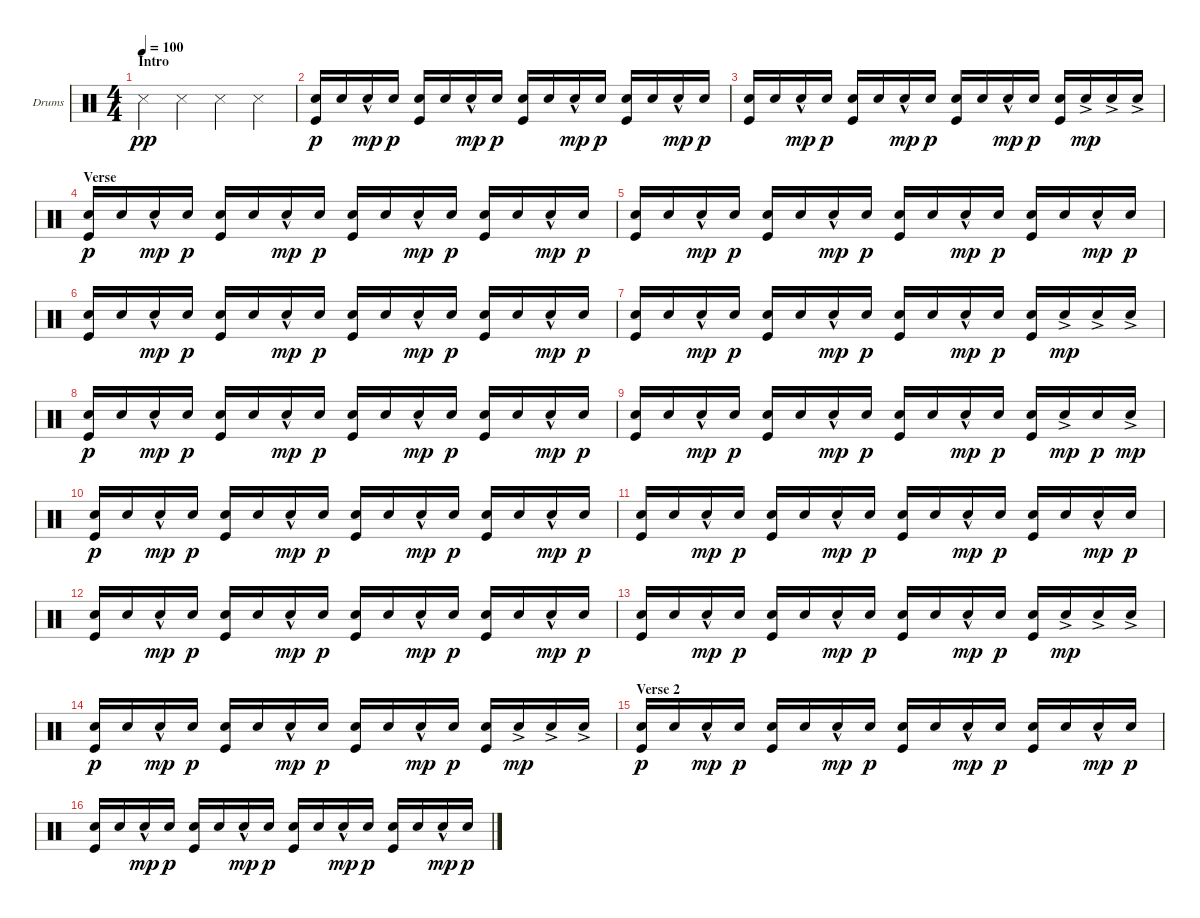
\defaultSystemsLayout 4
\bracketExtendMode groupsimilarinstruments
\firstSystemTrackNameOrientation horizontal
\otherSystemsTrackNameOrientation horizontal
\track ("Drumkit" "Drums") {instrument percussion}
\staff {score}
\articulation defaults
\ts (4 4)
\section ("" "Intro")
\tempo 100
\clef neutral
\ks c "Snare (side stick) 3".4{dy pp} "Snare (side stick) 3".4 "Snare (side stick) 3".4 "Snare (side stick) 3".4
|
("Snare (hit) 2" "Kick (hit)").16{dy p} "Snare (hit) 2".16 "Snare (hit) 2"{hac}.16{dy mp} "Snare (hit) 2".16{dy p} ("Snare (hit) 2" "Kick (hit)").16 "Snare (hit) 2".16 "Snare (hit) 2"{hac}.16{dy mp} "Snare (hit) 2".16{dy p} ("Snare (hit) 2" "Kick (hit)").16 "Snare (hit) 2".16 "Snare (hit) 2"{hac}.16{dy mp} "Snare (hit) 2".16{dy p} ("Snare (hit) 2" "Kick (hit)").16 "Snare (hit) 2".16 "Snare (hit) 2"{hac}.16{dy mp} "Snare (hit) 2".16{dy p} |
("Snare (hit) 2" "Kick (hit)").16 "Snare (hit) 2".16 "Snare (hit) 2"{hac}.16{dy mp} "Snare (hit) 2".16{dy p} ("Snare (hit) 2" "Kick (hit)").16 "Snare (hit) 2".16 "Snare (hit) 2"{hac}.16{dy mp} "Snare (hit) 2".16{dy p} ("Snare (hit) 2" "Kick (hit)").16 "Snare (hit) 2".16 "Snare (hit) 2"{hac}.16{dy mp} "Snare (hit) 2".16{dy p} ("Snare (hit) 2" "Kick (hit)").16 "Snare (hit) 2"{ac}.16{dy mp} "Snare (hit) 2"{ac}.16 "Snare (hit) 2"{ac}.16 |
\section ("" "Verse")
("Snare (hit) 2" "Kick (hit)").16{dy p} "Snare (hit) 2".16 "Snare (hit) 2"{hac}.16{dy mp} "Snare (hit) 2".16{dy p} ("Snare (hit) 2" "Kick (hit)").16 "Snare (hit) 2".16 "Snare (hit) 2"{hac}.16{dy mp} "Snare (hit) 2".16{dy p} ("Snare (hit) 2" "Kick (hit)").16 "Snare (hit) 2".16 "Snare (hit) 2"{hac}.16{dy mp} "Snare (hit) 2".16{dy p} ("Snare (hit) 2" "Kick (hit)").16 "Snare (hit) 2".16 "Snare (hit) 2"{hac}.16{dy mp} "Snare (hit) 2".16{dy p} |
("Snare (hit) 2" "Kick (hit)").16 "Snare (hit) 2".16 "Snare (hit) 2"{hac}.16{dy mp} "Snare (hit) 2".16{dy p} ("Snare (hit) 2" "Kick (hit)").16 "Snare (hit) 2".16 "Snare (hit) 2"{hac}.16{dy mp} "Snare (hit) 2".16{dy p} ("Snare (hit) 2" "Kick (hit)").16 "Snare (hit) 2".16 "Snare (hit) 2"{hac}.16{dy mp} "Snare (hit) 2".16{dy p} ("Snare (hit) 2" "Kick (hit)").16 "Snare (hit) 2".16 "Snare (hit) 2"{hac}.16{dy mp} "Snare (hit) 2".16{dy p} |
("Snare (hit) 2" "Kick (hit)").16 "Snare (hit) 2".16 "Snare (hit) 2"{hac}.16{dy mp} "Snare (hit) 2".16{dy p} ("Snare (hit) 2" "Kick (hit)").16 "Snare (hit) 2".16 "Snare (hit) 2"{hac}.16{dy mp} "Snare (hit) 2".16{dy p} ("Snare (hit) 2" "Kick (hit)").16 "Snare (hit) 2".16 "Snare (hit) 2"{hac}.16{dy mp} "Snare (hit) 2".16{dy p} ("Snare (hit) 2" "Kick (hit)").16 "Snare (hit) 2".16 "Snare (hit) 2"{hac}.16{dy mp} "Snare (hit) 2".16{dy p} |
("Snare (hit) 2" "Kick (hit)").16 "Snare (hit) 2".16 "Snare (hit) 2"{hac}.16{dy mp} "Snare (hit) 2".16{dy p} ("Snare (hit) 2" "Kick (hit)").16 "Snare (hit) 2".16 "Snare (hit) 2"{hac}.16{dy mp} "Snare (hit) 2".16{dy p} ("Snare (hit) 2" "Kick (hit)").16 "Snare (hit) 2".16 "Snare (hit) 2"{hac}.16{dy mp} "Snare (hit) 2".16{dy p} ("Snare (hit) 2" "Kick (hit)").16 "Snare (hit) 2"{ac}.16{dy mp} "Snare (hit) 2"{ac}.16 "Snare (hit) 2"{ac}.16 |
("Snare (hit) 2" "Kick (hit)").16{dy p} "Snare (hit) 2".16 "Snare (hit) 2"{hac}.16{dy mp} "Snare (hit) 2".16{dy p} ("Snare (hit) 2" "Kick (hit)").16 "Snare (hit) 2".16 "Snare (hit) 2"{hac}.16{dy mp} "Snare (hit) 2".16{dy p} ("Snare (hit) 2" "Kick (hit)").16 "Snare (hit) 2".16 "Snare (hit) 2"{hac}.16{dy mp} "Snare (hit) 2".16{dy p} ("Snare (hit) 2" "Kick (hit)").16 "Snare (hit) 2".16 "Snare (hit) 2"{hac}.16{dy mp} "Snare (hit) 2".16{dy p} |
("Snare (hit) 2" "Kick (hit)").16 "Snare (hit) 2".16 "Snare (hit) 2"{hac}.16{dy mp} "Snare (hit) 2".16{dy p} ("Snare (hit) 2" "Kick (hit)").16 "Snare (hit) 2".16 "Snare (hit) 2"{hac}.16{dy mp} "Snare (hit) 2".16{dy p} ("Snare (hit) 2" "Kick (hit)").16 "Snare (hit) 2".16 "Snare (hit) 2"{hac}.16{dy mp} "Snare (hit) 2".16{dy p} ("Snare (hit) 2" "Kick (hit)").16 "Snare (hit) 2"{ac}.16{dy mp} "Snare (hit) 2".16{dy p} "Snare (hit) 2"{ac}.16{dy mp} |
("Snare (hit) 2" "Kick (hit)").16{dy p} "Snare (hit) 2".16 "Snare (hit) 2"{hac}.16{dy mp} "Snare (hit) 2".16{dy p} ("Snare (hit) 2" "Kick (hit)").16 "Snare (hit) 2".16 "Snare (hit) 2"{hac}.16{dy mp} "Snare (hit) 2".16{dy p} ("Snare (hit) 2" "Kick (hit)").16 "Snare (hit) 2".16 "Snare (hit) 2"{hac}.16{dy mp} "Snare (hit) 2".16{dy p} ("Snare (hit) 2" "Kick (hit)").16 "Snare (hit) 2".16 "Snare (hit) 2"{hac}.16{dy mp} "Snare (hit) 2".16{dy p} |
("Snare (hit) 2" "Kick (hit)").16 "Snare (hit) 2".16 "Snare (hit) 2"{hac}.16{dy mp} "Snare (hit) 2".16{dy p} ("Snare (hit) 2" "Kick (hit)").16 "Snare (hit) 2".16 "Snare (hit) 2"{hac}.16{dy mp} "Snare (hit) 2".16{dy p} ("Snare (hit) 2" "Kick (hit)").16 "Snare (hit) 2".16 "Snare (hit) 2"{hac}.16{dy mp} "Snare (hit) 2".16{dy p} ("Snare (hit) 2" "Kick (hit)").16 "Snare (hit) 2".16 "Snare (hit) 2"{hac}.16{dy mp} "Snare (hit) 2".16{dy p} |
("Snare (hit) 2" "Kick (hit)").16 "Snare (hit) 2".16 "Snare (hit) 2"{hac}.16{dy mp} "Snare (hit) 2".16{dy p} ("Snare (hit) 2" "Kick (hit)").16 "Snare (hit) 2".16 "Snare (hit) 2"{hac}.16{dy mp} "Snare (hit) 2".16{dy p} ("Snare (hit) 2" "Kick (hit)").16 "Snare (hit) 2".16 "Snare (hit) 2"{hac}.16{dy mp} "Snare (hit) 2".16{dy p} ("Snare (hit) 2" "Kick (hit)").16 "Snare (hit) 2".16 "Snare (hit) 2"{hac}.16{dy mp} "Snare (hit) 2".16{dy p} |
("Snare (hit) 2" "Kick (hit)").16 "Snare (hit) 2".16 "Snare (hit) 2"{hac}.16{dy mp} "Snare (hit) 2".16{dy p} ("Snare (hit) 2" "Kick (hit)").16 "Snare (hit) 2".16 "Snare (hit) 2"{hac}.16{dy mp} "Snare (hit) 2".16{dy p} ("Snare (hit) 2" "Kick (hit)").16 "Snare (hit) 2".16 "Snare (hit) 2"{hac}.16{dy mp} "Snare (hit) 2".16{dy p} ("Snare (hit) 2" "Kick (hit)").16 "Snare (hit) 2"{ac}.16{dy mp} "Snare (hit) 2"{ac}.16 "Snare (hit) 2"{ac}.16 |
("Snare (hit) 2" "Kick (hit)").16{dy p} "Snare (hit) 2".16 "Snare (hit) 2"{hac}.16{dy mp} "Snare (hit) 2".16{dy p} ("Snare (hit) 2" "Kick (hit)").16 "Snare (hit) 2".16 "Snare (hit) 2"{hac}.16{dy mp} "Snare (hit) 2".16{dy p} ("Snare (hit) 2" "Kick (hit)").16 "Snare (hit) 2".16 "Snare (hit) 2"{hac}.16{dy mp} "Snare (hit) 2".16{dy p} ("Snare (hit) 2" "Kick (hit)").16 "Snare (hit) 2"{ac}.16{dy mp} "Snare (hit) 2"{ac}.16 "Snare (hit) 2"{ac}.16 |
\section ("" "Verse 2")
("Snare (hit) 2" "Kick (hit)").16{dy p} "Snare (hit) 2".16 "Snare (hit) 2"{hac}.16{dy mp} "Snare (hit) 2".16{dy p} ("Snare (hit) 2" "Kick (hit)").16 "Snare (hit) 2".16 "Snare (hit) 2"{hac}.16{dy mp} "Snare (hit) 2".16{dy p} ("Snare (hit) 2" "Kick (hit)").16 "Snare (hit) 2".16 "Snare (hit) 2"{hac}.16{dy mp} "Snare (hit) 2".16{dy p} ("Snare (hit) 2" "Kick (hit)").16 "Snare (hit) 2".16 "Snare (hit) 2"{hac}.16{dy mp} "Snare (hit) 2".16{dy p} |
("Snare (hit) 2" "Kick (hit)").16 "Snare (hit) 2".16 "Snare (hit) 2"{hac}.16{dy mp} "Snare (hit) 2".16{dy p} ("Snare (hit) 2" "Kick (hit)").16 "Snare (hit) 2".16 "Snare (hit) 2"{hac}.16{dy mp} "Snare (hit) 2".16{dy p} ("Snare (hit) 2" "Kick (hit)").16 "Snare (hit) 2".16 "Snare (hit) 2"{hac}.16{dy mp} "Snare (hit) 2".16{dy p} ("Snare (hit) 2" "Kick (hit)").16 "Snare (hit) 2".16 "Snare (hit) 2"{hac}.16{dy mp} "Snare (hit) 2".16{dy p}
